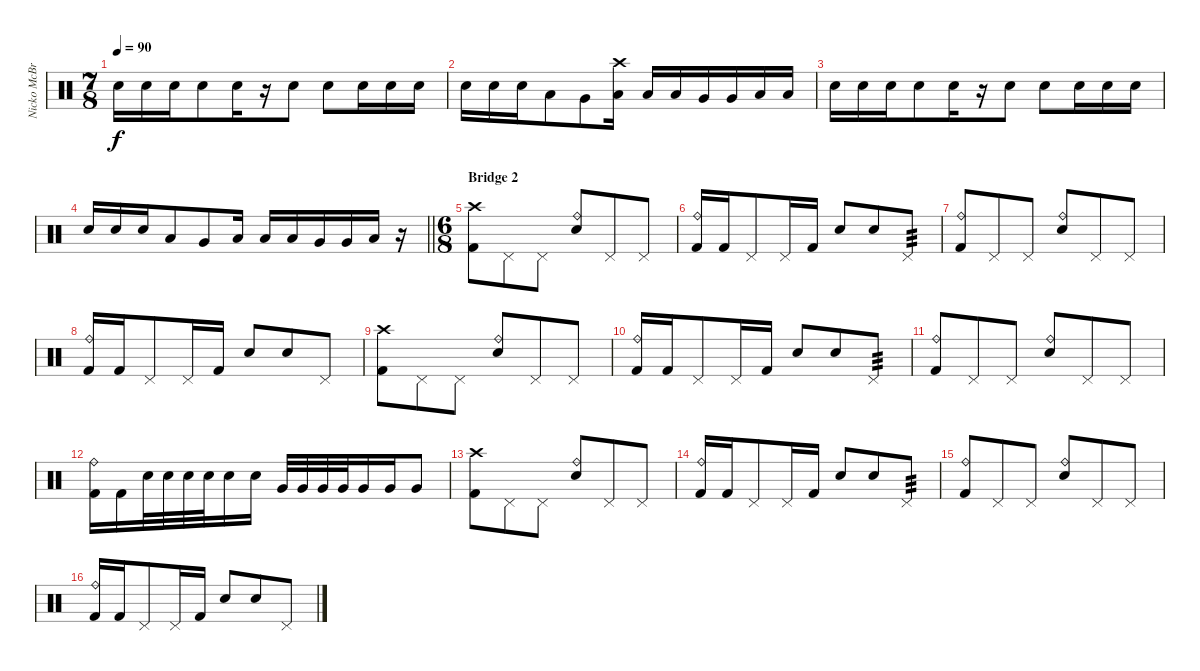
\track ("Nicko McBrain" "Nicko McBr") {instrument percussion}
\staff {score}
\articulation defaults
\ts (7 8)
\tempo 90
\clef neutral
\ks c "Electric Snare (hit)".16{dy f} "Electric Snare (hit)".16 "Electric Snare (hit)".16 "Electric Snare (hit)".8 "Electric Snare (hit)".16
r.16 "Electric Snare (hit)".8 "Electric Snare (hit)".8 "Electric Snare (hit)".16 "Electric Snare (hit)".16 "Electric Snare (hit)".16 |
"Electric Snare (hit)".16 "Electric Snare (hit)".16 "Electric Snare (hit)".16 "Low Tom (hit)".8 "Very Low Tom (hit)".8 ("Crash high (hit)" "Low Floor Tom (hit)").16 "Low Tom (hit)".16 "Low Tom (hit)".16 "Very Low Tom (hit)".16 "Very Low Tom (hit)".16 "Low Floor Tom (hit)".16 "Low Floor Tom (hit)".16 |
"Electric Snare (hit)".16 "Electric Snare (hit)".16 "Electric Snare (hit)".16 "Electric Snare (hit)".8 "Electric Snare (hit)".16 r.16 "Electric Snare (hit)".8 "Electric Snare (hit)".8 "Electric Snare (hit)".16 "Electric Snare (hit)".16 "Electric Snare (hit)".16 |
\barLineRight lightlight "Electric Snare (hit)".16 "Electric Snare (hit)".16 "Electric Snare (hit)".16 "Low Tom (hit)".8 "Very Low Tom (hit)".8 "Low Floor Tom (hit)".16 "Low Tom (hit)".16 "Low Tom (hit)".16 "Very Low Tom (hit)".16 "Very Low Tom (hit)".16 "Low Floor Tom (hit)".16
r.16 |
\ts (6 8)
\section ("" "Bridge 2")
("Crash high (hit)" "Kick (hit) 2").8 "Pedal Hi-Hat (hit)".8 "Pedal Hi-Hat (hit)".8 ("Ride (bell)" "Electric Snare (hit)").8 "Pedal Hi-Hat (hit)".8 "Pedal Hi-Hat (hit)".8 |
("Ride (bell)" "Kick (hit) 2").16 "Kick (hit) 2".16 "Pedal Hi-Hat (hit)".8 "Pedal Hi-Hat (hit)".16 "Kick (hit) 2".16 "Electric Snare (hit)".8 "Electric Snare (hit)".8 "Pedal Hi-Hat (hit)".8{tp 3} |
("Ride (bell)" "Kick (hit) 2").8 "Pedal Hi-Hat (hit)".8 "Pedal Hi-Hat (hit)".8 ("Ride (bell)" "Electric Snare (hit)").8 "Pedal Hi-Hat (hit)".8 "Pedal Hi-Hat (hit)".8 |
("Ride (bell)" "Kick (hit) 2").16 "Kick (hit) 2".16 "Pedal Hi-Hat (hit)".8 "Pedal Hi-Hat (hit)".16 "Kick (hit) 2".16 "Electric Snare (hit)".8 "Electric Snare (hit)".8 "Pedal Hi-Hat (hit)".8 |
("Crash high (hit)" "Kick (hit) 2").8 "Pedal Hi-Hat (hit)".8 "Pedal Hi-Hat (hit)".8 ("Ride (bell)" "Electric Snare (hit)").8 "Pedal Hi-Hat (hit)".8 "Pedal Hi-Hat (hit)".8 |
("Ride (bell)" "Kick (hit) 2").16 "Kick (hit) 2".16 "Pedal Hi-Hat (hit)".8 "Pedal Hi-Hat (hit)".16 "Kick (hit) 2".16 "Electric Snare (hit)".8 "Electric Snare (hit)".8 "Pedal Hi-Hat (hit)".8{tp 3} |
("Ride (bell)" "Kick (hit) 2").8 "Pedal Hi-Hat (hit)".8 "Pedal Hi-Hat (hit)".8 ("Ride (bell)" "Electric Snare (hit)").8 "Pedal Hi-Hat (hit)".8 "Pedal Hi-Hat (hit)".8 |
("Ride (bell)" "Kick (hit) 2").16 "Kick (hit) 2".16 "Electric Snare (hit)".32 "Electric Snare (hit)".32 "Electric Snare (hit)".32 "Electric Snare (hit)".32 "Electric Snare (hit)".16 "Electric Snare (hit)".16 "Very Low Tom (hit)".32 "Very Low Tom (hit)".32 "Very Low Tom (hit)".32 "Very Low Tom (hit)".32 "Very Low Tom (hit)".16 "Very Low Tom (hit)".16 "Very Low Tom (hit)".8 |
("Crash high (hit)" "Kick (hit) 2").8 "Pedal Hi-Hat (hit)".8 "Pedal Hi-Hat (hit)".8 ("Ride (bell)" "Electric Snare (hit)").8 "Pedal Hi-Hat (hit)".8 "Pedal Hi-Hat (hit)".8 |
("Ride (bell)" "Kick (hit) 2").16 "Kick (hit) 2".16 "Pedal Hi-Hat (hit)".8 "Pedal Hi-Hat (hit)".16 "Kick (hit) 2".16 "Electric Snare (hit)".8 "Electric Snare (hit)".8 "Pedal Hi-Hat (hit)".8{tp 3} |
("Ride (bell)" "Kick (hit) 2").8 "Pedal Hi-Hat (hit)".8 "Pedal Hi-Hat (hit)".8 ("Ride (bell)" "Electric Snare (hit)").8 "Pedal Hi-Hat (hit)".8 "Pedal Hi-Hat (hit)".8 |
("Ride (bell)" "Kick (hit) 2").16 "Kick (hit) 2".16 "Pedal Hi-Hat (hit)".8 "Pedal Hi-Hat (hit)".16 "Kick (hit) 2".16 "Electric Snare (hit)".8 "Electric Snare (hit)".8 "Pedal Hi-Hat (hit)".8
